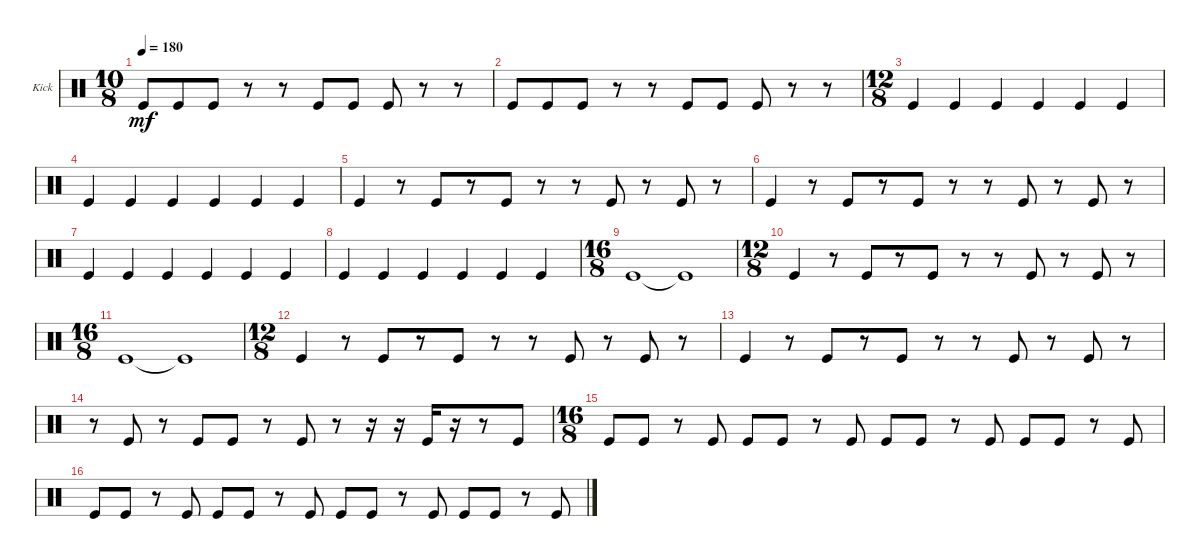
\defaultSystemsLayout 4
\bracketExtendMode groupsimilarinstruments
\firstSystemTrackNameOrientation horizontal
\otherSystemsTrackNameOrientation horizontal
\track ("Kick" "Kick") {instrument percussion}
\staff {score}
\articulation defaults
\ts (10 8)
\tempo 180
\clef neutral
\ks c "Kick (hit)".8{dy mf} "Kick (hit)".8 "Kick (hit)".8
r.8 r.8 "Kick (hit)".8 "Kick (hit)".8 "Kick (hit)".8 r.8 r.8 |
"Kick (hit)".8 "Kick (hit)".8 "Kick (hit)".8 r.8 r.8 "Kick (hit)".8 "Kick (hit)".8 "Kick (hit)".8 r.8 r.8 |
\ts (12 8)
"Kick (hit)".4 "Kick (hit)".4 "Kick (hit)".4 "Kick (hit)".4 "Kick (hit)".4 "Kick (hit)".4 |
"Kick (hit)".4 "Kick (hit)".4 "Kick (hit)".4 "Kick (hit)".4 "Kick (hit)".4 "Kick (hit)".4 |
"Kick (hit)".4 r.8 "Kick (hit)".8 r.8 "Kick (hit)".8 r.8 r.8 "Kick (hit)".8 r.8 "Kick (hit)".8 r.8 |
"Kick (hit)".4 r.8 "Kick (hit)".8 r.8 "Kick (hit)".8 r.8 r.8 "Kick (hit)".8 r.8 "Kick (hit)".8 r.8 |
"Kick (hit)".4 "Kick (hit)".4 "Kick (hit)".4 "Kick (hit)".4 "Kick (hit)".4 "Kick (hit)".4 |
"Kick (hit)".4 "Kick (hit)".4 "Kick (hit)".4 "Kick (hit)".4 "Kick (hit)".4 "Kick (hit)".4 |
\ts (16 8)
"Kick (hit)".1 "Kick (hit)"{t}.1 |
\ts (12 8)
"Kick (hit)".4 r.8 "Kick (hit)".8 r.8 "Kick (hit)".8 r.8 r.8 "Kick (hit)".8 r.8 "Kick (hit)".8 r.8 |
\ts (16 8)
"Kick (hit)".1 "Kick (hit)"{t}.1 |
\ts (12 8)
"Kick (hit)".4 r.8 "Kick (hit)".8 r.8 "Kick (hit)".8 r.8 r.8 "Kick (hit)".8 r.8 "Kick (hit)".8 r.8 |
"Kick (hit)".4 r.8 "Kick (hit)".8 r.8 "Kick (hit)".8 r.8 r.8 "Kick (hit)".8 r.8 "Kick (hit)".8 r.8 |
r.8 "Kick (hit)".8 r.8 "Kick (hit)".8 "Kick (hit)".8 r.8 "Kick (hit)".8 r.8 r.16 r.16 "Kick (hit)".16 r.16 r.8 "Kick (hit)".8 |
\ts (16 8)
"Kick (hit)".8 "Kick (hit)".8 r.8 "Kick (hit)".8 "Kick (hit)".8 "Kick (hit)".8 r.8 "Kick (hit)".8 "Kick (hit)".8 "Kick (hit)".8 r.8 "Kick (hit)".8 "Kick (hit)".8 "Kick (hit)".8 r.8 "Kick (hit)".8 |
"Kick (hit)".8 "Kick (hit)".8 r.8 "Kick (hit)".8 "Kick (hit)".8 "Kick (hit)".8 r.8 "Kick (hit)".8 "Kick (hit)".8 "Kick (hit)".8 r.8 "Kick (hit)".8 "Kick (hit)".8 "Kick (hit)".8 r.8 "Kick (hit)".8
